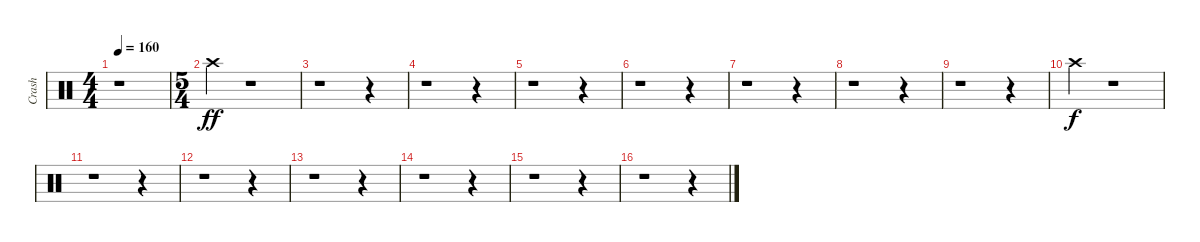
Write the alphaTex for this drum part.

\track ("Crash" "Crash") {instrument percussion}
\staff {score}
\articulation defaults
\ts (4 4)
\tempo 160
\clef neutral
\ks c
r.1{dy ff} |
\ts (5 4)
"Crash high (hit)".4 r.1 |
r.1 r.4 |
r.1 r.4 |
r.1 r.4 |
r.1 r.4 |
r.1 r.4 |
r.1 r.4 |
r.1 r.4 |
"Crash high (hit)".4{dy f} r.1 |
r.1 r.4 |
r.1 r.4 |
r.1 r.4 |
r.1 r.4 |
r.1 r.4 |
r.1 r.4
